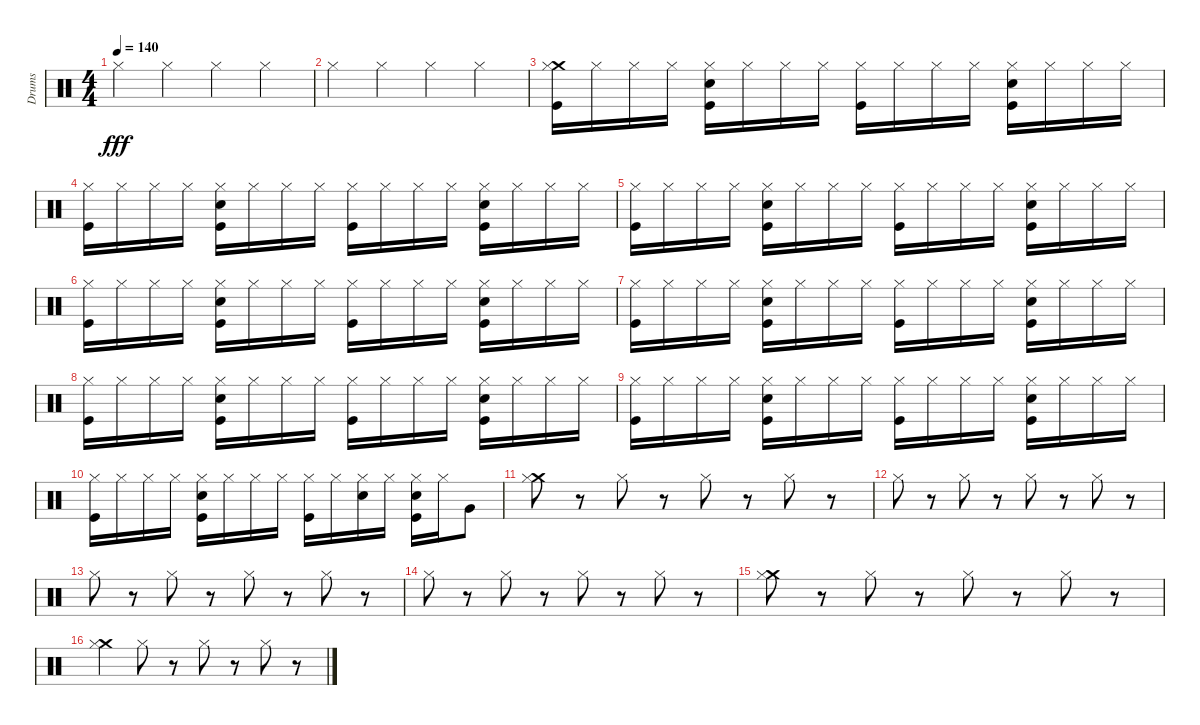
\track ("Drums" "Drums") {instrument percussion}
\staff {score}
\articulation defaults
\ts (4 4)
\tempo 140
\clef neutral
\ks c "Hi-Hat (closed)".4{dy fff} "Hi-Hat (closed)".4 "Hi-Hat (closed)".4 "Hi-Hat (closed)".4
|
"Hi-Hat (closed)".4 "Hi-Hat (closed)".4 "Hi-Hat (closed)".4 "Hi-Hat (closed)".4 |
("Crash medium (hit)" "Hi-Hat (closed)" "Kick (hit)").16 "Hi-Hat (closed)".16 "Hi-Hat (closed)".16 "Hi-Hat (closed)".16 ("Hi-Hat (closed)" "Electric Snare (hit)" "Kick (hit)").16 "Hi-Hat (closed)".16 "Hi-Hat (closed)".16 "Hi-Hat (closed)".16 ("Hi-Hat (closed)" "Kick (hit)").16 "Hi-Hat (closed)".16 "Hi-Hat (closed)".16 "Hi-Hat (closed)".16 ("Hi-Hat (closed)" "Electric Snare (hit)" "Kick (hit)").16 "Hi-Hat (closed)".16 "Hi-Hat (closed)".16 "Hi-Hat (closed)".16 |
("Hi-Hat (closed)" "Kick (hit)").16 "Hi-Hat (closed)".16 "Hi-Hat (closed)".16 "Hi-Hat (closed)".16 ("Hi-Hat (closed)" "Electric Snare (hit)" "Kick (hit)").16 "Hi-Hat (closed)".16 "Hi-Hat (closed)".16 "Hi-Hat (closed)".16 ("Hi-Hat (closed)" "Kick (hit)").16 "Hi-Hat (closed)".16 "Hi-Hat (closed)".16 "Hi-Hat (closed)".16 ("Hi-Hat (closed)" "Electric Snare (hit)" "Kick (hit)").16 "Hi-Hat (closed)".16 "Hi-Hat (closed)".16 "Hi-Hat (closed)".16 |
("Hi-Hat (closed)" "Kick (hit)").16 "Hi-Hat (closed)".16 "Hi-Hat (closed)".16 "Hi-Hat (closed)".16 ("Hi-Hat (closed)" "Electric Snare (hit)" "Kick (hit)").16 "Hi-Hat (closed)".16 "Hi-Hat (closed)".16 "Hi-Hat (closed)".16 ("Hi-Hat (closed)" "Kick (hit)").16 "Hi-Hat (closed)".16 "Hi-Hat (closed)".16 "Hi-Hat (closed)".16 ("Hi-Hat (closed)" "Electric Snare (hit)" "Kick (hit)").16 "Hi-Hat (closed)".16 "Hi-Hat (closed)".16 "Hi-Hat (closed)".16 |
("Hi-Hat (closed)" "Kick (hit)").16 "Hi-Hat (closed)".16 "Hi-Hat (closed)".16 "Hi-Hat (closed)".16 ("Hi-Hat (closed)" "Electric Snare (hit)" "Kick (hit)").16 "Hi-Hat (closed)".16 "Hi-Hat (closed)".16 "Hi-Hat (closed)".16 ("Hi-Hat (closed)" "Kick (hit)").16 "Hi-Hat (closed)".16 "Hi-Hat (closed)".16 "Hi-Hat (closed)".16 ("Hi-Hat (closed)" "Electric Snare (hit)" "Kick (hit)").16 "Hi-Hat (closed)".16 "Hi-Hat (closed)".16 "Hi-Hat (closed)".16 |
("Hi-Hat (closed)" "Kick (hit)").16 "Hi-Hat (closed)".16 "Hi-Hat (closed)".16 "Hi-Hat (closed)".16 ("Hi-Hat (closed)" "Electric Snare (hit)" "Kick (hit)").16 "Hi-Hat (closed)".16 "Hi-Hat (closed)".16 "Hi-Hat (closed)".16 ("Hi-Hat (closed)" "Kick (hit)").16 "Hi-Hat (closed)".16 "Hi-Hat (closed)".16 "Hi-Hat (closed)".16 ("Hi-Hat (closed)" "Electric Snare (hit)" "Kick (hit)").16 "Hi-Hat (closed)".16 "Hi-Hat (closed)".16 "Hi-Hat (closed)".16 |
("Hi-Hat (closed)" "Kick (hit)").16 "Hi-Hat (closed)".16 "Hi-Hat (closed)".16 "Hi-Hat (closed)".16 ("Hi-Hat (closed)" "Electric Snare (hit)" "Kick (hit)").16 "Hi-Hat (closed)".16 "Hi-Hat (closed)".16 "Hi-Hat (closed)".16 ("Hi-Hat (closed)" "Kick (hit)").16 "Hi-Hat (closed)".16 "Hi-Hat (closed)".16 "Hi-Hat (closed)".16 ("Hi-Hat (closed)" "Electric Snare (hit)" "Kick (hit)").16 "Hi-Hat (closed)".16 "Hi-Hat (closed)".16 "Hi-Hat (closed)".16 |
("Hi-Hat (closed)" "Kick (hit)").16 "Hi-Hat (closed)".16 "Hi-Hat (closed)".16 "Hi-Hat (closed)".16 ("Hi-Hat (closed)" "Electric Snare (hit)" "Kick (hit)").16 "Hi-Hat (closed)".16 "Hi-Hat (closed)".16 "Hi-Hat (closed)".16 ("Hi-Hat (closed)" "Kick (hit)").16 "Hi-Hat (closed)".16 "Hi-Hat (closed)".16 "Hi-Hat (closed)".16 ("Hi-Hat (closed)" "Electric Snare (hit)" "Kick (hit)").16 "Hi-Hat (closed)".16 "Hi-Hat (closed)".16 "Hi-Hat (closed)".16 |
("Hi-Hat (closed)" "Kick (hit)").16 "Hi-Hat (closed)".16 "Hi-Hat (closed)".16 "Hi-Hat (closed)".16 ("Hi-Hat (closed)" "Electric Snare (hit)" "Kick (hit)").16 "Hi-Hat (closed)".16 "Hi-Hat (closed)".16 "Hi-Hat (closed)".16 ("Hi-Hat (closed)" "Kick (hit)").16 "Hi-Hat (closed)".16 ("Hi-Hat (closed)" "Electric Snare (hit)").16 "Hi-Hat (closed)".16 ("Hi-Hat (closed)" "Electric Snare (hit)" "Kick (hit)").16 "Hi-Hat (closed)".16 "Very Low Tom (hit)".8 |
("Crash medium (hit)" "Hi-Hat (closed)").8 r.8 "Hi-Hat (closed)".8 r.8 "Hi-Hat (closed)".8 r.8 "Hi-Hat (closed)".8 r.8 |
"Hi-Hat (closed)".8 r.8 "Hi-Hat (closed)".8 r.8 "Hi-Hat (closed)".8 r.8 "Hi-Hat (closed)".8 r.8 |
"Hi-Hat (closed)".8 r.8 "Hi-Hat (closed)".8 r.8 "Hi-Hat (closed)".8 r.8 "Hi-Hat (closed)".8 r.8 |
"Hi-Hat (closed)".8 r.8 "Hi-Hat (closed)".8 r.8 "Hi-Hat (closed)".8 r.8 "Hi-Hat (closed)".8 r.8 |
("Crash medium (hit)" "Hi-Hat (closed)").8 r.8 "Hi-Hat (closed)".8 r.8 "Hi-Hat (closed)".8 r.8 "Hi-Hat (closed)".8 r.8 |
("Crash medium (hit)" "Hi-Hat (closed)").4 "Hi-Hat (closed)".8 r.8 "Hi-Hat (closed)".8 r.8 "Hi-Hat (closed)".8 r.8
